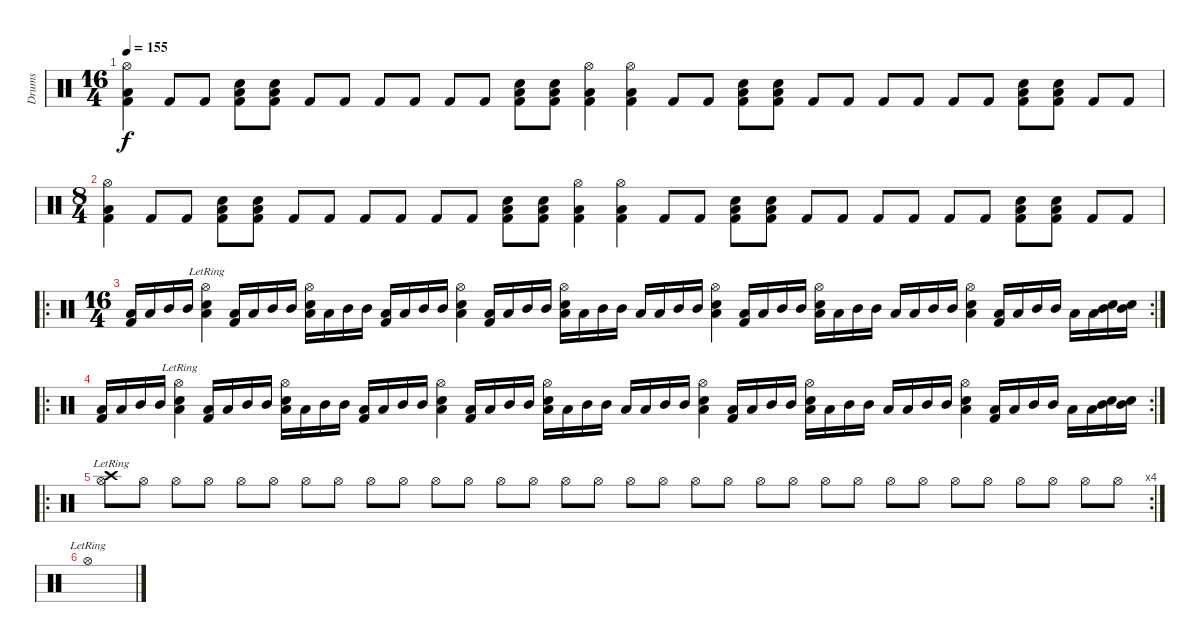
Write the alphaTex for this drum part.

\track ("Drums" "Drums") {instrument percussion}
\staff {score}
\articulation defaults
\ts (16 4)
\tempo 155
\clef neutral
\ks c
("Hi-Hat (open)" "Low Tom (hit)" "Kick (hit) 2").4{dy f} "Kick (hit) 2".8 "Kick (hit) 2".8 ("Snare (hit) 2" "Low Tom (hit)" "Kick (hit) 2").8 ("Snare (hit) 2" "Low Tom (hit)" "Kick (hit) 2").8 "Kick (hit) 2".8 "Kick (hit) 2".8 "Kick (hit) 2".8 "Kick (hit) 2".8 "Kick (hit) 2".8 "Kick (hit) 2".8 ("Snare (hit) 2" "Low Tom (hit)" "Kick (hit) 2").8 ("Snare (hit) 2" "Low Tom (hit)" "Kick (hit) 2").8 ("Hi-Hat (open)" "Low Tom (hit)" "Kick (hit) 2").4 ("Hi-Hat (open)" "Low Tom (hit)" "Kick (hit) 2").4 "Kick (hit) 2".8 "Kick (hit) 2".8 ("Snare (hit) 2" "Low Tom (hit)" "Kick (hit) 2").8 ("Snare (hit) 2" "Low Tom (hit)" "Kick (hit) 2").8 "Kick (hit) 2".8 "Kick (hit) 2".8 "Kick (hit) 2".8 "Kick (hit) 2".8 "Kick (hit) 2".8 "Kick (hit) 2".8 ("Snare (hit) 2" "Low Tom (hit)" "Kick (hit) 2").8 ("Snare (hit) 2" "Low Tom (hit)" "Kick (hit) 2").8 "Kick (hit) 2".8 "Kick (hit) 2".8 |
\ts (8 4)
("Hi-Hat (open)" "Low Tom (hit)" "Kick (hit) 2").4 "Kick (hit) 2".8 "Kick (hit) 2".8 ("Snare (hit) 2" "Low Tom (hit)" "Kick (hit) 2").8 ("Snare (hit) 2" "Low Tom (hit)" "Kick (hit) 2").8 "Kick (hit) 2".8 "Kick (hit) 2".8 "Kick (hit) 2".8 "Kick (hit) 2".8 "Kick (hit) 2".8 "Kick (hit) 2".8 ("Snare (hit) 2" "Low Tom (hit)" "Kick (hit) 2").8 ("Snare (hit) 2" "Low Tom (hit)" "Kick (hit) 2").8 ("Hi-Hat (open)" "Low Tom (hit)" "Kick (hit) 2").4 ("Hi-Hat (open)" "Low Tom (hit)" "Kick (hit) 2").4 "Kick (hit) 2".8 "Kick (hit) 2".8 ("Snare (hit) 2" "Low Tom (hit)" "Kick (hit) 2").8 ("Snare (hit) 2" "Low Tom (hit)" "Kick (hit) 2").8 "Kick (hit) 2".8 "Kick (hit) 2".8 "Kick (hit) 2".8 "Kick (hit) 2".8 "Kick (hit) 2".8 "Kick (hit) 2".8 ("Snare (hit) 2" "Low Tom (hit)" "Kick (hit) 2").8 ("Snare (hit) 2" "Low Tom (hit)" "Kick (hit) 2").8 "Kick (hit) 2".8 "Kick (hit) 2".8 |
\ro
\rc 2
\ts (16 4)
("Low Tom (hit)" "Kick (hit) 2").16 "Low Tom (hit)".16 "Mid Tom (hit)".16 "Mid Tom (hit)".16 ("Hi-Hat (open)" "Low Tom (hit)"{lr} "Snare (hit) 2").4 ("Low Tom (hit)" "Kick (hit) 2").16 "Low Tom (hit)".16 "Mid Tom (hit)".16 "Mid Tom (hit)".16 ("Hi-Hat (open)" "Low Tom (hit)" "Snare (hit) 2").16 "Low Tom (hit)".16 "Mid Tom (hit)".16 "Mid Tom (hit)".16 ("Low Tom (hit)" "Kick (hit) 2").16 "Low Tom (hit)".16 "Mid Tom (hit)".16 "Mid Tom (hit)".16 ("Hi-Hat (open)" "Low Tom (hit)" "Snare (hit) 2").4 ("Low Tom (hit)" "Kick (hit) 2").16 "Low Tom (hit)".16 "Mid Tom (hit)".16 "Mid Tom (hit)".16 ("Hi-Hat (open)" "Low Tom (hit)" "Snare (hit) 2").16 "Low Tom (hit)".16 "Mid Tom (hit)".16 "Mid Tom (hit)".16 "Low Tom (hit)".16 "Low Tom (hit)".16 "Mid Tom (hit)".16 "Mid Tom (hit)".16 ("Hi-Hat (open)" "Low Tom (hit)" "Snare (hit) 2").4 ("Low Tom (hit)" "Kick (hit) 2").16 "Low Tom (hit)".16 "Mid Tom (hit)".16 "Mid Tom (hit)".16 ("Hi-Hat (open)" "Low Tom (hit)" "Snare (hit) 2").16 "Low Tom (hit)".16 "Mid Tom (hit)".16 "Mid Tom (hit)".16 "Low Tom (hit)".16 "Low Tom (hit)".16 "Mid Tom (hit)".16 "Mid Tom (hit)".16 ("Hi-Hat (open)" "Low Tom (hit)" "Snare (hit) 2").4 ("Low Tom (hit)" "Kick (hit) 2").16 "Low Tom (hit)".16 "Mid Tom (hit)".16 "Mid Tom (hit)".16 "Low Tom (hit)".16 "Low Tom (hit)".16 ("Mid Tom (hit)" "Snare (hit) 2").16 ("Mid Tom (hit)" "Snare (hit) 2").16 |
\ro
\rc 2
("Low Tom (hit)" "Kick (hit) 2").16 "Low Tom (hit)".16 "Mid Tom (hit)".16 "Mid Tom (hit)".16 ("Hi-Hat (open)" "Low Tom (hit)"{lr} "Snare (hit) 2").4 ("Low Tom (hit)" "Kick (hit) 2").16 "Low Tom (hit)".16 "Mid Tom (hit)".16 "Mid Tom (hit)".16 ("Hi-Hat (open)" "Low Tom (hit)" "Snare (hit) 2").16 "Low Tom (hit)".16 "Mid Tom (hit)".16 "Mid Tom (hit)".16 ("Low Tom (hit)" "Kick (hit) 2").16 "Low Tom (hit)".16 "Mid Tom (hit)".16 "Mid Tom (hit)".16 ("Hi-Hat (open)" "Low Tom (hit)" "Snare (hit) 2").4 ("Low Tom (hit)" "Kick (hit) 2").16 "Low Tom (hit)".16 "Mid Tom (hit)".16 "Mid Tom (hit)".16 ("Hi-Hat (open)" "Low Tom (hit)" "Snare (hit) 2").16 "Low Tom (hit)".16 "Mid Tom (hit)".16 "Mid Tom (hit)".16 "Low Tom (hit)".16 "Low Tom (hit)".16 "Mid Tom (hit)".16 "Mid Tom (hit)".16 ("Hi-Hat (open)" "Low Tom (hit)" "Snare (hit) 2").4 ("Low Tom (hit)" "Kick (hit) 2").16 "Low Tom (hit)".16 "Mid Tom (hit)".16 "Mid Tom (hit)".16 ("Hi-Hat (open)" "Low Tom (hit)" "Snare (hit) 2").16 "Low Tom (hit)".16 "Mid Tom (hit)".16 "Mid Tom (hit)".16 "Low Tom (hit)".16 "Low Tom (hit)".16 "Mid Tom (hit)".16 "Mid Tom (hit)".16 ("Hi-Hat (open)" "Low Tom (hit)" "Snare (hit) 2").4 ("Low Tom (hit)" "Kick (hit) 2").16 "Low Tom (hit)".16 "Mid Tom (hit)".16 "Mid Tom (hit)".16 "Low Tom (hit)".16 "Low Tom (hit)".16 ("Mid Tom (hit)" "Snare (hit) 2").16 ("Mid Tom (hit)" "Snare (hit) 2").16 |
\ro
\rc 4
("Hi-Hat (open)" "Crash high (hit)"{lr}).8 "Hi-Hat (open)".8 "Hi-Hat (open)".8 "Hi-Hat (open)".8 "Hi-Hat (open)".8 "Hi-Hat (open)".8 "Hi-Hat (open)".8 "Hi-Hat (open)".8 "Hi-Hat (open)".8 "Hi-Hat (open)".8 "Hi-Hat (open)".8 "Hi-Hat (open)".8 "Hi-Hat (open)".8 "Hi-Hat (open)".8 "Hi-Hat (open)".8 "Hi-Hat (open)".8 "Hi-Hat (open)".8 "Hi-Hat (open)".8 "Hi-Hat (open)".8 "Hi-Hat (open)".8 "Hi-Hat (open)".8 "Hi-Hat (open)".8 "Hi-Hat (open)".8 "Hi-Hat (open)".8 "Hi-Hat (open)".8 "Hi-Hat (open)".8 "Hi-Hat (open)".8 "Hi-Hat (open)".8 "Hi-Hat (open)".8 "Hi-Hat (open)".8 "Hi-Hat (open)".8 "Hi-Hat (open)".8 |
"Hi-Hat (open)"{lr}.1
